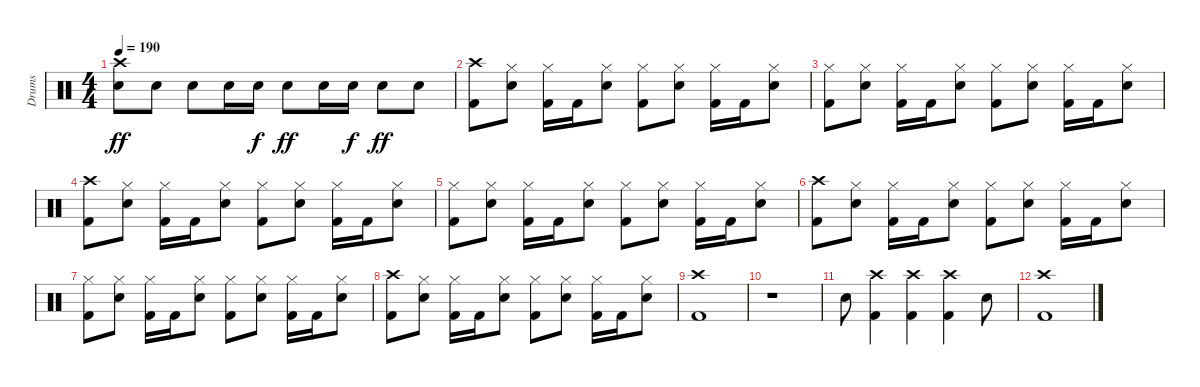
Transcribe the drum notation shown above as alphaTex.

\track ("Drums" "Drums") {instrument percussion}
\staff {score}
\articulation defaults
\ts (4 4)
\tempo 190
\clef neutral
\ks c
("Crash high (hit)" "Snare (hit) 2").8{dy ff} "Snare (hit) 2".8 "Snare (hit) 2".8 "Snare (hit) 2".16 "Snare (hit) 2".16{dy f} "Snare (hit) 2".8{dy ff} "Snare (hit) 2".16 "Snare (hit) 2".16{dy f} "Snare (hit) 2".8{dy ff} "Snare (hit) 2".8 |
("Crash high (hit)" "Kick (hit) 2").8 ("Hi-Hat (closed)" "Snare (hit) 2").8 ("Hi-Hat (closed)" "Kick (hit) 2").16 "Kick (hit) 2".16 ("Hi-Hat (closed)" "Snare (hit) 2").8 ("Hi-Hat (closed)" "Kick (hit) 2").8 ("Hi-Hat (closed)" "Snare (hit) 2").8 ("Hi-Hat (closed)" "Kick (hit) 2").16 "Kick (hit) 2".16 ("Hi-Hat (closed)" "Snare (hit) 2").8 |
("Hi-Hat (closed)" "Kick (hit) 2").8 ("Hi-Hat (closed)" "Snare (hit) 2").8 ("Hi-Hat (closed)" "Kick (hit) 2").16 "Kick (hit) 2".16 ("Hi-Hat (closed)" "Snare (hit) 2").8 ("Hi-Hat (closed)" "Kick (hit) 2").8 ("Hi-Hat (closed)" "Snare (hit) 2").8 ("Hi-Hat (closed)" "Kick (hit) 2").16 "Kick (hit) 2".16 ("Hi-Hat (closed)" "Snare (hit) 2").8 |
("Crash high (hit)" "Kick (hit) 2").8 ("Hi-Hat (closed)" "Snare (hit) 2").8 ("Hi-Hat (closed)" "Kick (hit) 2").16 "Kick (hit) 2".16 ("Hi-Hat (closed)" "Snare (hit) 2").8 ("Hi-Hat (closed)" "Kick (hit) 2").8 ("Hi-Hat (closed)" "Snare (hit) 2").8 ("Hi-Hat (closed)" "Kick (hit) 2").16 "Kick (hit) 2".16 ("Hi-Hat (closed)" "Snare (hit) 2").8 |
("Hi-Hat (closed)" "Kick (hit) 2").8 ("Hi-Hat (closed)" "Snare (hit) 2").8 ("Hi-Hat (closed)" "Kick (hit) 2").16 "Kick (hit) 2".16 ("Hi-Hat (closed)" "Snare (hit) 2").8 ("Hi-Hat (closed)" "Kick (hit) 2").8 ("Hi-Hat (closed)" "Snare (hit) 2").8 ("Hi-Hat (closed)" "Kick (hit) 2").16 "Kick (hit) 2".16 ("Hi-Hat (closed)" "Snare (hit) 2").8 |
("Crash high (hit)" "Kick (hit) 2").8 ("Hi-Hat (closed)" "Snare (hit) 2").8 ("Hi-Hat (closed)" "Kick (hit) 2").16 "Kick (hit) 2".16 ("Hi-Hat (closed)" "Snare (hit) 2").8 ("Hi-Hat (closed)" "Kick (hit) 2").8 ("Hi-Hat (closed)" "Snare (hit) 2").8 ("Hi-Hat (closed)" "Kick (hit) 2").16 "Kick (hit) 2".16 ("Hi-Hat (closed)" "Snare (hit) 2").8 |
("Hi-Hat (closed)" "Kick (hit) 2").8 ("Hi-Hat (closed)" "Snare (hit) 2").8 ("Hi-Hat (closed)" "Kick (hit) 2").16 "Kick (hit) 2".16 ("Hi-Hat (closed)" "Snare (hit) 2").8 ("Hi-Hat (closed)" "Kick (hit) 2").8 ("Hi-Hat (closed)" "Snare (hit) 2").8 ("Hi-Hat (closed)" "Kick (hit) 2").16 "Kick (hit) 2".16 ("Hi-Hat (closed)" "Snare (hit) 2").8 |
("Crash high (hit)" "Kick (hit) 2").8 ("Hi-Hat (closed)" "Snare (hit) 2").8 ("Hi-Hat (closed)" "Kick (hit) 2").16 "Kick (hit) 2".16 ("Hi-Hat (closed)" "Snare (hit) 2").8 ("Hi-Hat (closed)" "Kick (hit) 2").8 ("Hi-Hat (closed)" "Snare (hit) 2").8 ("Hi-Hat (closed)" "Kick (hit) 2").16 "Kick (hit) 2".16 ("Hi-Hat (closed)" "Snare (hit) 2").8 |
("Crash high (hit)" "Kick (hit) 2").1 |
r.1 |
"Snare (hit) 2".8 ("Crash high (hit)" "Kick (hit) 2").4 ("Crash high (hit)" "Kick (hit) 2").4 ("Crash high (hit)" "Kick (hit) 2").4 "Snare (hit) 2".8 |
("Crash high (hit)" "Kick (hit) 2").1
